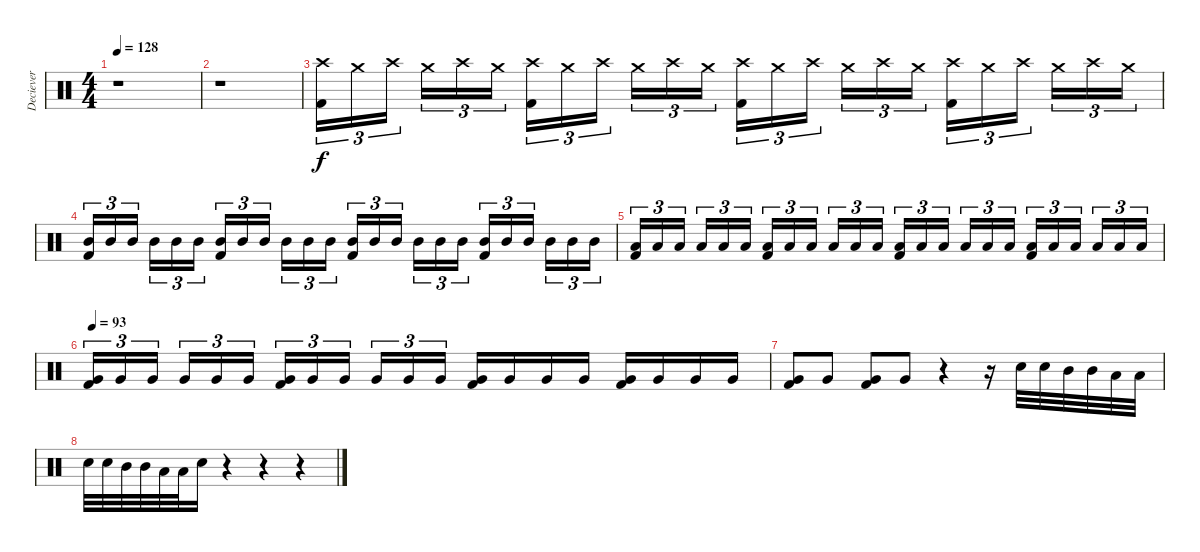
\track ("Deciever" "Deciever") {instrument percussion}
\staff {score}
\articulation defaults
\ts (4 4)
\tempo 128
\clef neutral
\ks c
r.1{dy f} |
r.1 |
("Crash high (hit)" "Kick (hit) 2").16{tu (3 2)} "Crash medium (hit)".16{tu (3 2)} "Crash high (hit)".16{tu (3 2) beam splitsecondary} "Crash medium (hit)".16{tu (3 2)} "Crash high (hit)".16{tu (3 2)} "Crash medium (hit)".16{tu (3 2)} ("Crash high (hit)" "Kick (hit) 2").16{tu (3 2)} "Crash medium (hit)".16{tu (3 2)} "Crash high (hit)".16{tu (3 2) beam splitsecondary} "Crash medium (hit)".16{tu (3 2)} "Crash high (hit)".16{tu (3 2)} "Crash medium (hit)".16{tu (3 2)} ("Crash high (hit)" "Kick (hit) 2").16{tu (3 2)} "Crash medium (hit)".16{tu (3 2)} "Crash high (hit)".16{tu (3 2) beam splitsecondary} "Crash medium (hit)".16{tu (3 2)} "Crash high (hit)".16{tu (3 2)} "Crash medium (hit)".16{tu (3 2)} ("Crash high (hit)" "Kick (hit) 2").16{tu (3 2)} "Crash medium (hit)".16{tu (3 2)} "Crash high (hit)".16{tu (3 2) beam splitsecondary} "Crash medium (hit)".16{tu (3 2)} "Crash high (hit)".16{tu (3 2)} "Crash medium (hit)".16{tu (3 2)} |
("Mid Tom (hit)" "Kick (hit) 2").16{tu (3 2)} "Mid Tom (hit)".16{tu (3 2)} "Mid Tom (hit)".16{tu (3 2) beam splitsecondary} "Mid Tom (hit)".16{tu (3 2)} "Mid Tom (hit)".16{tu (3 2)} "Mid Tom (hit)".16{tu (3 2)} ("Mid Tom (hit)" "Kick (hit) 2").16{tu (3 2)} "Mid Tom (hit)".16{tu (3 2)} "Mid Tom (hit)".16{tu (3 2) beam splitsecondary} "Mid Tom (hit)".16{tu (3 2)} "Mid Tom (hit)".16{tu (3 2)} "Mid Tom (hit)".16{tu (3 2)} ("Mid Tom (hit)" "Kick (hit) 2").16{tu (3 2)} "Mid Tom (hit)".16{tu (3 2)} "Mid Tom (hit)".16{tu (3 2) beam splitsecondary} "Mid Tom (hit)".16{tu (3 2)} "Mid Tom (hit)".16{tu (3 2)} "Mid Tom (hit)".16{tu (3 2)} ("Mid Tom (hit)" "Kick (hit) 2").16{tu (3 2)} "Mid Tom (hit)".16{tu (3 2)} "Mid Tom (hit)".16{tu (3 2) beam splitsecondary} "Mid Tom (hit)".16{tu (3 2)} "Mid Tom (hit)".16{tu (3 2)} "Mid Tom (hit)".16{tu (3 2)} |
("Low Tom (hit)" "Kick (hit) 2").16{tu (3 2)} "Low Tom (hit)".16{tu (3 2)} "Low Tom (hit)".16{tu (3 2) beam splitsecondary} "Low Tom (hit)".16{tu (3 2)} "Low Tom (hit)".16{tu (3 2)} "Low Tom (hit)".16{tu (3 2)} ("Low Tom (hit)" "Kick (hit) 2").16{tu (3 2)} "Low Tom (hit)".16{tu (3 2)} "Low Tom (hit)".16{tu (3 2) beam splitsecondary} "Low Tom (hit)".16{tu (3 2)} "Low Tom (hit)".16{tu (3 2)} "Low Tom (hit)".16{tu (3 2)} ("Low Tom (hit)" "Kick (hit) 2").16{tu (3 2)} "Low Tom (hit)".16{tu (3 2)} "Low Tom (hit)".16{tu (3 2) beam splitsecondary} "Low Tom (hit)".16{tu (3 2)} "Low Tom (hit)".16{tu (3 2)} "Low Tom (hit)".16{tu (3 2)} ("Low Tom (hit)" "Kick (hit) 2").16{tu (3 2)} "Low Tom (hit)".16{tu (3 2)} "Low Tom (hit)".16{tu (3 2) beam splitsecondary} "Low Tom (hit)".16{tu (3 2)} "Low Tom (hit)".16{tu (3 2)} "Low Tom (hit)".16{tu (3 2)} |
\tempo 93
("Very Low Tom (hit)" "Kick (hit) 2").16{tu (3 2)} "Very Low Tom (hit)".16{tu (3 2)} "Very Low Tom (hit)".16{tu (3 2) beam splitsecondary} "Very Low Tom (hit)".16{tu (3 2)} "Very Low Tom (hit)".16{tu (3 2)} "Very Low Tom (hit)".16{tu (3 2)} ("Very Low Tom (hit)" "Kick (hit) 2").16{tu (3 2)} "Very Low Tom (hit)".16{tu (3 2)} "Very Low Tom (hit)".16{tu (3 2) beam splitsecondary} "Very Low Tom (hit)".16{tu (3 2)} "Very Low Tom (hit)".16{tu (3 2)} "Very Low Tom (hit)".16{tu (3 2)} ("Very Low Tom (hit)" "Kick (hit) 2").16 "Very Low Tom (hit)".16 "Very Low Tom (hit)".16 "Very Low Tom (hit)".16 ("Very Low Tom (hit)" "Kick (hit) 2").16 "Very Low Tom (hit)".16 "Very Low Tom (hit)".16 "Very Low Tom (hit)".16 |
("Very Low Tom (hit)" "Kick (hit) 2").8 "Very Low Tom (hit)".8 ("Very Low Tom (hit)" "Kick (hit) 2").8 "Very Low Tom (hit)".8 r.4 r.16 "Electric Snare (hit)".32 "Electric Snare (hit)".32 "Mid Tom (hit)".32 "Mid Tom (hit)".32 "Low Tom (hit)".32 "Low Tom (hit)".32 |
"Electric Snare (hit)".32 "Electric Snare (hit)".32 "Mid Tom (hit)".32 "Mid Tom (hit)".32 "Low Tom (hit)".32 "Low Tom (hit)".32 "Electric Snare (hit)".16 r.4 r.4 r.4
